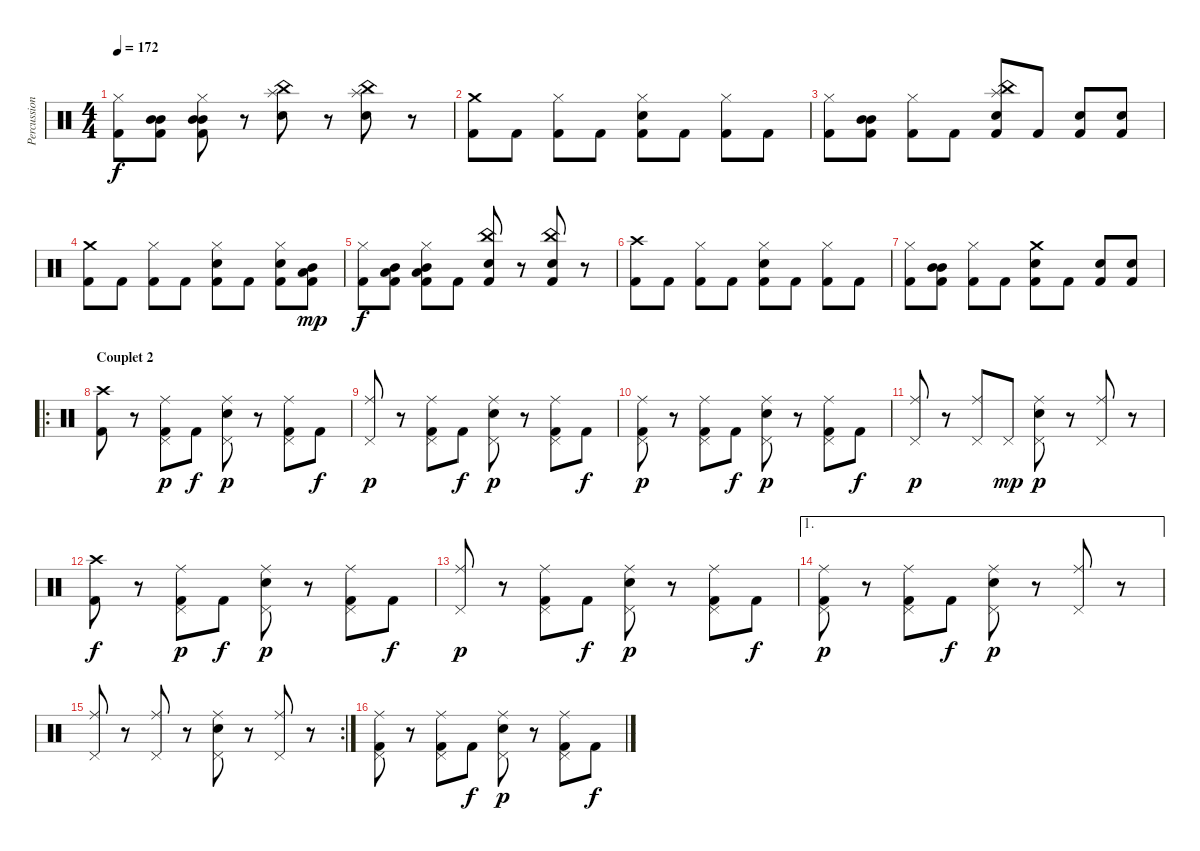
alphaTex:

\track ("Percussions" "Percussion") {instrument percussion}
\staff {score}
\articulation defaults
\ts (4 4)
\tempo 172
\clef neutral
\ks c
("Hi-Hat (closed)" "Kick (hit) 2").8{dy f} ("Mid Tom (hit)" "Mid Tom (hit)" "Kick (hit) 2").8 ("Hi-Hat (closed)" "Mid Tom (hit)" "Mid Tom (hit)" "Kick (hit) 2").8 r.8 ("China (hit)" "Splash (hit)" "Snare (hit) 2").8 r.8 ("China (hit)" "Splash (hit)" "Snare (hit) 2").8 r.8 |
("Crash medium (hit)" "Kick (hit) 2").8 "Kick (hit) 2".8 ("Hi-Hat (closed)" "Kick (hit) 2").8 "Kick (hit) 2".8 ("Hi-Hat (closed)" "Snare (hit) 2" "Kick (hit) 2").8 "Kick (hit) 2".8 ("Hi-Hat (closed)" "Kick (hit) 2").8 "Kick (hit) 2".8 |
("Hi-Hat (closed)" "Kick (hit) 2").8 ("Mid Tom (hit)" "Mid Tom (hit)" "Kick (hit) 2").8 ("Hi-Hat (closed)" "Kick (hit) 2").8 "Kick (hit) 2".8 ("China (hit)" "Splash (hit)" "Snare (hit) 2" "Kick (hit) 2").8 "Kick (hit) 2".8 ("Snare (hit) 2" "Kick (hit) 2").8 ("Snare (hit) 2" "Kick (hit) 2").8 |
("Crash medium (hit)" "Kick (hit) 2").8 "Kick (hit) 2".8 ("Hi-Hat (closed)" "Kick (hit) 2").8 "Kick (hit) 2".8 ("Hi-Hat (closed)" "Snare (hit) 2" "Kick (hit) 2").8 "Kick (hit) 2".8 ("Hi-Hat (closed)" "Snare (hit) 2" "Kick (hit) 2").8 ("Mid Tom (hit)" "Low Tom (hit)" "Kick (hit) 2").8{dy mp} |
("Hi-Hat (closed)" "Kick (hit) 2").8{dy f} ("Mid Tom (hit)" "Low Tom (hit)" "Kick (hit) 2").8 ("Hi-Hat (closed)" "Mid Tom (hit)" "Low Tom (hit)" "Kick (hit) 2").8 "Kick (hit) 2".8 ("China (hit)" "Snare (hit) 2" "Kick (hit) 2").8 r.8 ("China (hit)" "Snare (hit) 2" "Kick (hit) 2").8 r.8 |
("Crash high (hit)" "Kick (hit) 2").8 "Kick (hit) 2".8 ("Hi-Hat (closed)" "Kick (hit) 2").8 "Kick (hit) 2".8 ("Hi-Hat (closed)" "Snare (hit) 2" "Kick (hit) 2").8 "Kick (hit) 2".8 ("Hi-Hat (closed)" "Kick (hit) 2").8 "Kick (hit) 2".8 |
("Hi-Hat (closed)" "Kick (hit) 2").8 ("Mid Tom (hit)" "Mid Tom (hit)" "Kick (hit) 2").8 ("Hi-Hat (closed)" "Kick (hit) 2").8 "Kick (hit) 2".8 ("Crash medium (hit)" "Snare (hit) 2" "Kick (hit) 2").8 "Kick (hit) 2".8 ("Snare (hit) 2" "Kick (hit) 2").8 ("Snare (hit) 2" "Kick (hit) 2").8 |
\ro
\section ("" "Couplet 2")
("Crash high (hit)" "Kick (hit) 2").8 r.8 ("Pedal Hi-Hat (hit)" "Ride (middle)" "Kick (hit) 2").8{dy p} "Kick (hit) 2".8{dy f} ("Pedal Hi-Hat (hit)" "Ride (middle)" "Snare (hit) 2").8{dy p} r.8 ("Pedal Hi-Hat (hit)" "Ride (middle)" "Kick (hit) 2").8 "Kick (hit) 2".8{dy f} |
("Pedal Hi-Hat (hit)" "Ride (middle)").8{dy p} r.8 ("Pedal Hi-Hat (hit)" "Ride (middle)" "Kick (hit) 2").8 "Kick (hit) 2".8{dy f} ("Pedal Hi-Hat (hit)" "Ride (middle)" "Snare (hit) 2").8{dy p} r.8 ("Pedal Hi-Hat (hit)" "Ride (middle)" "Kick (hit) 2").8 "Kick (hit) 2".8{dy f} |
("Pedal Hi-Hat (hit)" "Ride (middle)" "Kick (hit) 2").8{dy p} r.8 ("Pedal Hi-Hat (hit)" "Ride (middle)" "Kick (hit) 2").8 "Kick (hit) 2".8{dy f} ("Pedal Hi-Hat (hit)" "Ride (middle)" "Snare (hit) 2").8{dy p} r.8 ("Pedal Hi-Hat (hit)" "Ride (middle)" "Kick (hit) 2").8 "Kick (hit) 2".8{dy f} |
("Pedal Hi-Hat (hit)" "Ride (middle)").8{dy p} r.8 ("Pedal Hi-Hat (hit)" "Ride (middle)").8 "Pedal Hi-Hat (hit)".8{dy mp} ("Pedal Hi-Hat (hit)" "Ride (middle)" "Snare (hit) 2").8{dy p} r.8 ("Pedal Hi-Hat (hit)" "Ride (middle)").8 r.8 |
("Crash high (hit)" "Kick (hit) 2").8{dy f} r.8 ("Pedal Hi-Hat (hit)" "Ride (middle)" "Kick (hit) 2").8{dy p} "Kick (hit) 2".8{dy f} ("Pedal Hi-Hat (hit)" "Ride (middle)" "Snare (hit) 2").8{dy p} r.8 ("Pedal Hi-Hat (hit)" "Ride (middle)" "Kick (hit) 2").8 "Kick (hit) 2".8{dy f} |
("Pedal Hi-Hat (hit)" "Ride (middle)").8{dy p} r.8 ("Pedal Hi-Hat (hit)" "Ride (middle)" "Kick (hit) 2").8 "Kick (hit) 2".8{dy f} ("Pedal Hi-Hat (hit)" "Ride (middle)" "Snare (hit) 2").8{dy p} r.8 ("Pedal Hi-Hat (hit)" "Ride (middle)" "Kick (hit) 2").8 "Kick (hit) 2".8{dy f} |
\ae 1
("Pedal Hi-Hat (hit)" "Ride (middle)" "Kick (hit) 2").8{dy p} r.8 ("Pedal Hi-Hat (hit)" "Ride (middle)" "Kick (hit) 2").8 "Kick (hit) 2".8{dy f} ("Pedal Hi-Hat (hit)" "Ride (middle)" "Snare (hit) 2").8{dy p} r.8 ("Pedal Hi-Hat (hit)" "Ride (middle)").8 r.8 |
\rc 2
("Pedal Hi-Hat (hit)" "Ride (middle)").8 r.8 ("Pedal Hi-Hat (hit)" "Ride (middle)").8 r.8 ("Pedal Hi-Hat (hit)" "Ride (middle)" "Snare (hit) 2").8 r.8 ("Pedal Hi-Hat (hit)" "Ride (middle)").8 r.8 |
("Pedal Hi-Hat (hit)" "Ride (middle)" "Kick (hit) 2").8 r.8 ("Pedal Hi-Hat (hit)" "Ride (middle)" "Kick (hit) 2").8 "Kick (hit) 2".8{dy f} ("Pedal Hi-Hat (hit)" "Ride (middle)" "Snare (hit) 2").8{dy p} r.8 ("Pedal Hi-Hat (hit)" "Ride (middle)" "Kick (hit) 2").8 "Kick (hit) 2".8{dy f}
